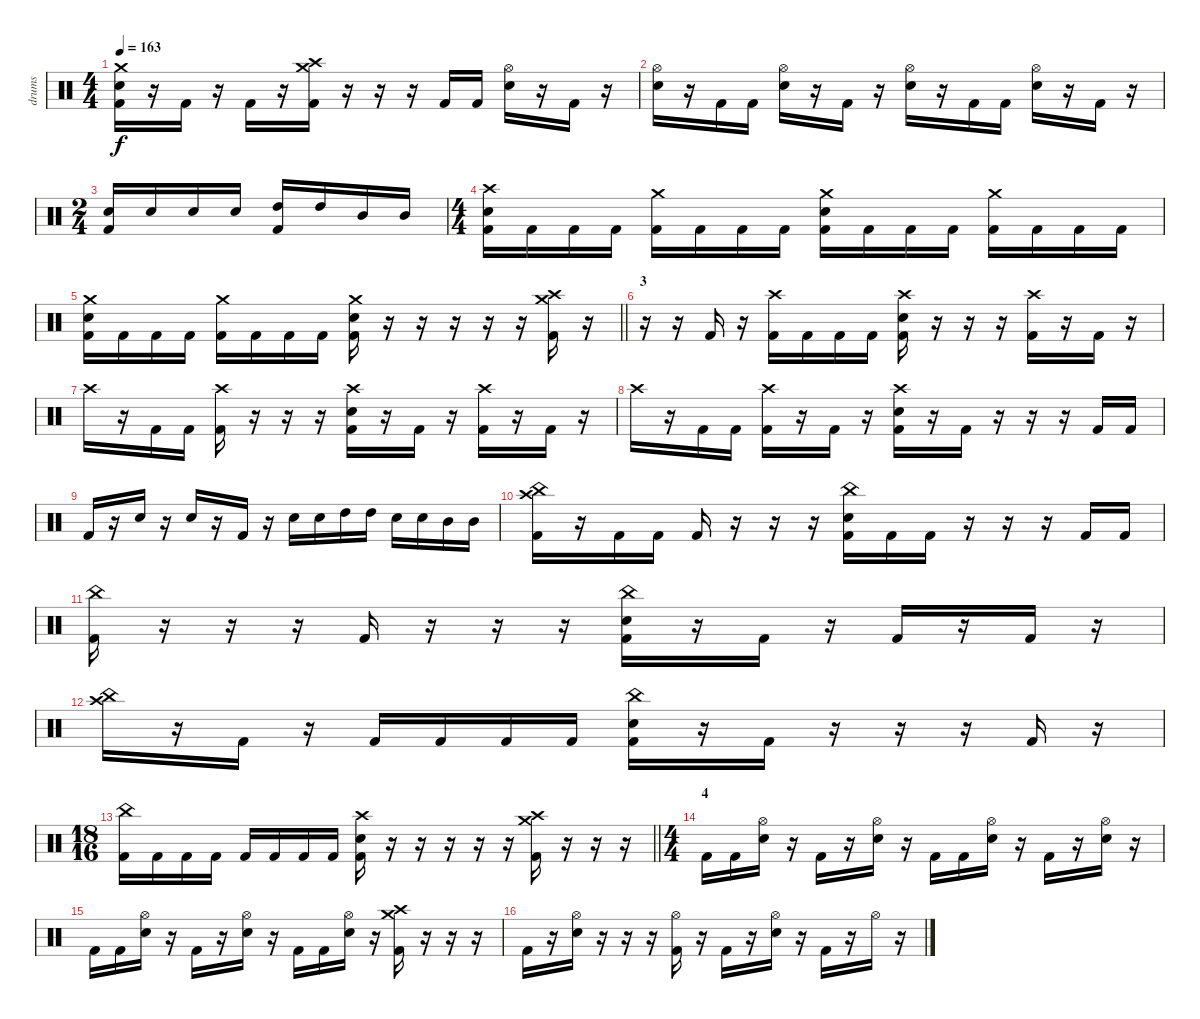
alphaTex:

\track ("drums" "drums") {instrument percussion}
\staff {score}
\articulation defaults
\ts (4 4)
\tempo 163
\clef neutral
\ks c
("Crash medium (hit)" "Electric Snare (hit)" "Kick (hit) 2").16{dy f} r.16 "Kick (hit) 2".16 r.16 "Kick (hit) 2".16 r.16 ("Crash medium (hit)" "Crash high (hit)" "Kick (hit) 2").16 r.16 r.16 r.16 "Kick (hit) 2".16 "Kick (hit) 2".16 ("Hi-Hat (open)" "Electric Snare (hit)").16 r.16 "Kick (hit) 2".16 r.16 |
("Hi-Hat (open)" "Electric Snare (hit)").16 r.16 "Kick (hit) 2".16 "Kick (hit) 2".16 ("Hi-Hat (open)" "Electric Snare (hit)").16 r.16 "Kick (hit) 2".16 r.16 ("Hi-Hat (open)" "Electric Snare (hit)").16 r.16 "Kick (hit) 2".16 "Kick (hit) 2".16 ("Hi-Hat (open)" "Electric Snare (hit)").16 r.16 "Kick (hit) 2".16 r.16 |
\ts (2 4)
("Electric Snare (hit)" "Kick (hit) 2").16 "Electric Snare (hit)".16 "Electric Snare (hit)".16 "Electric Snare (hit)".16 ("High Tom (hit)" "Kick (hit) 2").16 "High Tom (hit)".16 "Mid Tom (hit)".16 "Mid Tom (hit)".16 |
\ts (4 4)
("Crash high (hit)" "Electric Snare (hit)" "Kick (hit) 2").16 "Kick (hit) 2".16 "Kick (hit) 2".16 "Kick (hit) 2".16 ("Crash medium (hit)" "Kick (hit) 2").16 "Kick (hit) 2".16 "Kick (hit) 2".16 "Kick (hit) 2".16 ("Crash medium (hit)" "Electric Snare (hit)" "Kick (hit) 2").16 "Kick (hit) 2".16 "Kick (hit) 2".16 "Kick (hit) 2".16 ("Crash medium (hit)" "Kick (hit) 2").16 "Kick (hit) 2".16 "Kick (hit) 2".16 "Kick (hit) 2".16 |
\barLineRight lightlight
("Crash medium (hit)" "Electric Snare (hit)" "Kick (hit) 2").16 "Kick (hit) 2".16 "Kick (hit) 2".16 "Kick (hit) 2".16 ("Crash medium (hit)" "Kick (hit) 2").16 "Kick (hit) 2".16 "Kick (hit) 2".16 "Kick (hit) 2".16 ("Crash medium (hit)" "Electric Snare (hit)" "Kick (hit) 2").16 r.16 r.16 r.16 r.16 r.16 ("Crash medium (hit)" "Crash high (hit)" "Kick (hit) 2").16 r.16 |
\section ("" "3")
r.16 r.16 "Kick (hit) 2".16 r.16 ("Crash high (hit)" "Kick (hit) 2").16 "Kick (hit) 2".16 "Kick (hit) 2".16 "Kick (hit) 2".16 ("Crash high (hit)" "Electric Snare (hit)" "Kick (hit) 2").16 r.16 r.16 r.16 ("Crash high (hit)" "Kick (hit) 2").16 r.16 "Kick (hit) 2".16 r.16 |
"Crash high (hit)".16 r.16 "Kick (hit) 2".16 "Kick (hit) 2".16 ("Crash high (hit)" "Kick (hit) 2").16 r.16 r.16 r.16 ("Crash high (hit)" "Electric Snare (hit)" "Kick (hit) 2").16 r.16 "Kick (hit) 2".16 r.16 ("Crash high (hit)" "Kick (hit) 2").16 r.16 "Kick (hit) 2".16 r.16 |
"Crash high (hit)".16 r.16 "Kick (hit) 2".16 "Kick (hit) 2".16 ("Crash high (hit)" "Kick (hit) 2").16 r.16 "Kick (hit) 2".16 r.16 ("Crash high (hit)" "Electric Snare (hit)" "Kick (hit) 2").16 r.16 "Kick (hit) 2".16 r.16 r.16 r.16 "Kick (hit) 2".16 "Kick (hit) 2".16 |
"Kick (hit) 2".16 r.16 "Electric Snare (hit)".16 r.16 "Electric Snare (hit)".16 r.16 "Kick (hit) 2".16 r.16 "Electric Snare (hit)".16 "Electric Snare (hit)".16 "High Tom (hit)".16 "High Tom (hit)".16 "Electric Snare (hit)".16 "Electric Snare (hit)".16 "Mid Tom (hit)".16 "Mid Tom (hit)".16 |
("China (hit)" "Crash high (hit)" "Kick (hit) 2").16 r.16 "Kick (hit) 2".16 "Kick (hit) 2".16 "Kick (hit) 2".16 r.16 r.16 r.16 ("China (hit)" "Electric Snare (hit)" "Kick (hit) 2").16 "Kick (hit) 2".16 "Kick (hit) 2".16 r.16 r.16 r.16 "Kick (hit) 2".16 "Kick (hit) 2".16 |
("China (hit)" "Kick (hit) 2").16 r.16 r.16 r.16 "Kick (hit) 2".16 r.16 r.16 r.16 ("China (hit)" "Electric Snare (hit)" "Kick (hit) 2").16 r.16 "Kick (hit) 2".16 r.16 "Kick (hit) 2".16 r.16 "Kick (hit) 2".16 r.16 |
("China (hit)" "Crash high (hit)").16 r.16 "Kick (hit) 2".16 r.16 "Kick (hit) 2".16 "Kick (hit) 2".16 "Kick (hit) 2".16 "Kick (hit) 2".16 ("China (hit)" "Electric Snare (hit)" "Kick (hit) 2").16 r.16 "Kick (hit) 2".16 r.16 r.16 r.16 "Kick (hit) 2".16 r.16 |
\ts (18 16)
\barLineRight lightlight
("China (hit)" "Kick (hit) 2").16 "Kick (hit) 2".16 "Kick (hit) 2".16 "Kick (hit) 2".16 "Kick (hit) 2".16 "Kick (hit) 2".16 "Kick (hit) 2".16 "Kick (hit) 2".16 ("Crash high (hit)" "Electric Snare (hit)" "Kick (hit) 2").16 r.16 r.16 r.16 r.16 r.16 ("Crash medium (hit)" "Crash high (hit)" "Kick (hit) 2").16 r.16 r.16 r.16 |
\ts (4 4)
\section ("" "4")
"Kick (hit) 2".16 "Kick (hit) 2".16 ("Hi-Hat (open)" "Electric Snare (hit)").16 r.16 "Kick (hit) 2".16 r.16 ("Hi-Hat (open)" "Electric Snare (hit)").16 r.16 "Kick (hit) 2".16 "Kick (hit) 2".16 ("Hi-Hat (open)" "Electric Snare (hit)").16 r.16 "Kick (hit) 2".16 r.16 ("Hi-Hat (open)" "Electric Snare (hit)").16 r.16 |
"Kick (hit) 2".16 "Kick (hit) 2".16 ("Hi-Hat (open)" "Electric Snare (hit)").16 r.16 "Kick (hit) 2".16 r.16 ("Hi-Hat (open)" "Electric Snare (hit)").16 r.16 "Kick (hit) 2".16 "Kick (hit) 2".16 ("Hi-Hat (open)" "Electric Snare (hit)").16 r.16 ("Crash medium (hit)" "Crash high (hit)" "Kick (hit) 2").16 r.16 r.16 r.16 |
"Kick (hit) 2".16 r.16 ("Hi-Hat (open)" "Electric Snare (hit)").16 r.16 r.16 r.16 ("Hi-Hat (open)" "Kick (hit) 2").16 r.16 "Kick (hit) 2".16 r.16 ("Hi-Hat (open)" "Electric Snare (hit)").16 r.16 "Kick (hit) 2".16 r.16 "Hi-Hat (open)".16 r.16
